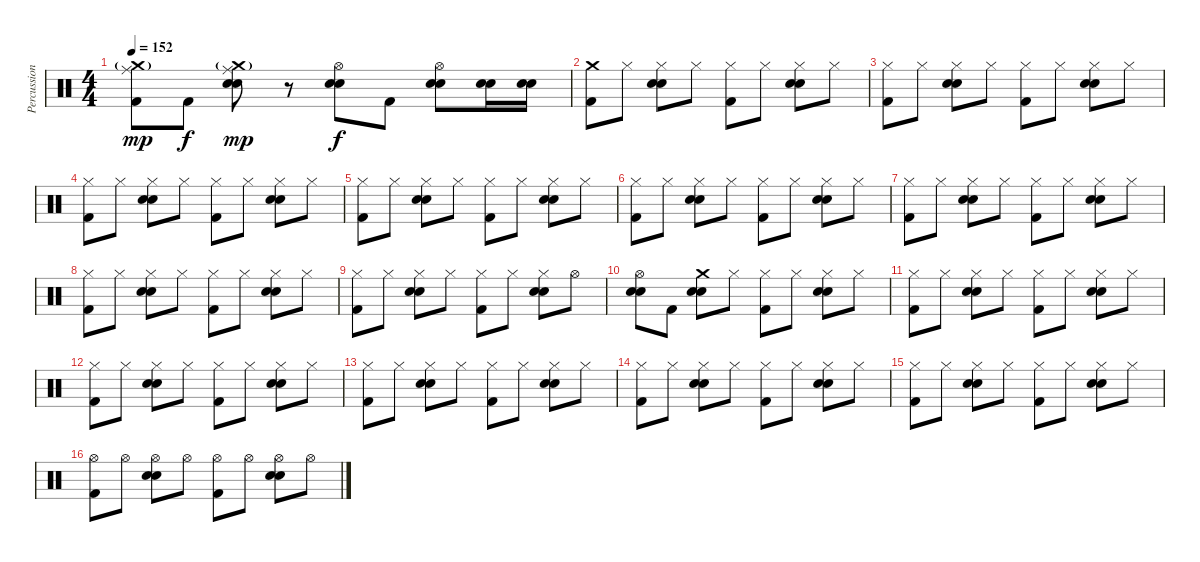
\track ("Percussion" "Percussion") {instrument percussion}
\staff {score}
\articulation defaults
\ts (4 4)
\tempo 152
\clef neutral
\ks c
("Crash medium (hit)"{g} "Ride (middle)" "Kick (hit) 2").8{dy mp} "Kick (hit) 2".8{dy f} ("Crash medium (hit)"{g} "Ride (middle)" "Snare (hit) 2" "Electric Snare (hit)").8{dy mp} r.8 ("Hi-Hat (open)" "Snare (hit) 2" "Electric Snare (hit)").8{dy f} "Kick (hit) 2".8 ("Hi-Hat (open)" "Snare (hit) 2" "Electric Snare (hit)").8 ("Snare (hit) 2" "Electric Snare (hit)").16 ("Snare (hit) 2" "Electric Snare (hit)").16 |
("Crash medium (hit)" "Kick (hit) 2").8 "Hi-Hat (closed)".8 ("Hi-Hat (closed)" "Snare (hit) 2" "Electric Snare (hit)").8 "Hi-Hat (closed)".8 ("Hi-Hat (closed)" "Kick (hit) 2").8 "Hi-Hat (closed)".8 ("Hi-Hat (closed)" "Snare (hit) 2" "Electric Snare (hit)").8 "Hi-Hat (closed)".8 |
("Hi-Hat (closed)" "Kick (hit) 2").8 "Hi-Hat (closed)".8 ("Hi-Hat (closed)" "Snare (hit) 2" "Electric Snare (hit)").8 "Hi-Hat (closed)".8 ("Hi-Hat (closed)" "Kick (hit) 2").8 "Hi-Hat (closed)".8 ("Hi-Hat (closed)" "Snare (hit) 2" "Electric Snare (hit)").8 "Hi-Hat (closed)".8 |
("Hi-Hat (closed)" "Kick (hit) 2").8 "Hi-Hat (closed)".8 ("Hi-Hat (closed)" "Snare (hit) 2" "Electric Snare (hit)").8 "Hi-Hat (closed)".8 ("Hi-Hat (closed)" "Kick (hit) 2").8 "Hi-Hat (closed)".8 ("Hi-Hat (closed)" "Snare (hit) 2" "Electric Snare (hit)").8 "Hi-Hat (closed)".8 |
("Hi-Hat (closed)" "Kick (hit) 2").8 "Hi-Hat (closed)".8 ("Hi-Hat (closed)" "Snare (hit) 2" "Electric Snare (hit)").8 "Hi-Hat (closed)".8 ("Hi-Hat (closed)" "Kick (hit) 2").8 "Hi-Hat (closed)".8 ("Hi-Hat (closed)" "Snare (hit) 2" "Electric Snare (hit)").8 "Hi-Hat (closed)".8 |
("Hi-Hat (closed)" "Kick (hit) 2").8 "Hi-Hat (closed)".8 ("Hi-Hat (closed)" "Snare (hit) 2" "Electric Snare (hit)").8 "Hi-Hat (closed)".8 ("Hi-Hat (closed)" "Kick (hit) 2").8 "Hi-Hat (closed)".8 ("Hi-Hat (closed)" "Snare (hit) 2" "Electric Snare (hit)").8 "Hi-Hat (closed)".8 |
("Hi-Hat (closed)" "Kick (hit) 2").8 "Hi-Hat (closed)".8 ("Hi-Hat (closed)" "Snare (hit) 2" "Electric Snare (hit)").8 "Hi-Hat (closed)".8 ("Hi-Hat (closed)" "Kick (hit) 2").8 "Hi-Hat (closed)".8 ("Hi-Hat (closed)" "Snare (hit) 2" "Electric Snare (hit)").8 "Hi-Hat (closed)".8 |
("Hi-Hat (closed)" "Kick (hit) 2").8 "Hi-Hat (closed)".8 ("Hi-Hat (closed)" "Snare (hit) 2" "Electric Snare (hit)").8 "Hi-Hat (closed)".8 ("Hi-Hat (closed)" "Kick (hit) 2").8 "Hi-Hat (closed)".8 ("Hi-Hat (closed)" "Snare (hit) 2" "Electric Snare (hit)").8 "Hi-Hat (closed)".8 |
("Hi-Hat (closed)" "Kick (hit) 2").8 "Hi-Hat (closed)".8 ("Hi-Hat (closed)" "Snare (hit) 2" "Electric Snare (hit)").8 "Hi-Hat (closed)".8 ("Hi-Hat (closed)" "Kick (hit) 2").8 "Hi-Hat (closed)".8 ("Hi-Hat (closed)" "Snare (hit) 2" "Electric Snare (hit)").8 "Hi-Hat (open)".8 |
("Hi-Hat (open)" "Snare (hit) 2" "Electric Snare (hit)").8 "Kick (hit) 2".8 ("Crash medium (hit)" "Snare (hit) 2" "Electric Snare (hit)").8 "Hi-Hat (closed)".8 ("Hi-Hat (closed)" "Kick (hit) 2").8 "Hi-Hat (closed)".8 ("Hi-Hat (closed)" "Snare (hit) 2" "Electric Snare (hit)").8 "Hi-Hat (closed)".8 |
("Hi-Hat (closed)" "Kick (hit) 2").8 "Hi-Hat (closed)".8 ("Hi-Hat (closed)" "Snare (hit) 2" "Electric Snare (hit)").8 "Hi-Hat (closed)".8 ("Hi-Hat (closed)" "Kick (hit) 2").8 "Hi-Hat (closed)".8 ("Hi-Hat (closed)" "Snare (hit) 2" "Electric Snare (hit)").8 "Hi-Hat (closed)".8 |
("Hi-Hat (closed)" "Kick (hit) 2").8 "Hi-Hat (closed)".8 ("Hi-Hat (closed)" "Snare (hit) 2" "Electric Snare (hit)").8 "Hi-Hat (closed)".8 ("Hi-Hat (closed)" "Kick (hit) 2").8 "Hi-Hat (closed)".8 ("Hi-Hat (closed)" "Snare (hit) 2" "Electric Snare (hit)").8 "Hi-Hat (closed)".8 |
("Hi-Hat (closed)" "Kick (hit) 2").8 "Hi-Hat (closed)".8 ("Hi-Hat (closed)" "Snare (hit) 2" "Electric Snare (hit)").8 "Hi-Hat (closed)".8 ("Hi-Hat (closed)" "Kick (hit) 2").8 "Hi-Hat (closed)".8 ("Hi-Hat (closed)" "Snare (hit) 2" "Electric Snare (hit)").8 "Hi-Hat (closed)".8 |
("Hi-Hat (closed)" "Kick (hit) 2").8 "Hi-Hat (closed)".8 ("Hi-Hat (closed)" "Snare (hit) 2" "Electric Snare (hit)").8 "Hi-Hat (closed)".8 ("Hi-Hat (closed)" "Kick (hit) 2").8 "Hi-Hat (closed)".8 ("Hi-Hat (closed)" "Snare (hit) 2" "Electric Snare (hit)").8 "Hi-Hat (closed)".8 |
("Hi-Hat (closed)" "Kick (hit) 2").8 "Hi-Hat (closed)".8 ("Hi-Hat (closed)" "Snare (hit) 2" "Electric Snare (hit)").8 "Hi-Hat (closed)".8 ("Hi-Hat (closed)" "Kick (hit) 2").8 "Hi-Hat (closed)".8 ("Hi-Hat (closed)" "Snare (hit) 2" "Electric Snare (hit)").8 "Hi-Hat (closed)".8 |
("Hi-Hat (open)" "Kick (hit) 2").8 "Hi-Hat (open)".8 ("Hi-Hat (open)" "Snare (hit) 2" "Electric Snare (hit)").8 "Hi-Hat (open)".8 ("Hi-Hat (open)" "Kick (hit) 2").8 "Hi-Hat (open)".8 ("Hi-Hat (open)" "Snare (hit) 2" "Electric Snare (hit)").8 "Hi-Hat (open)".8
